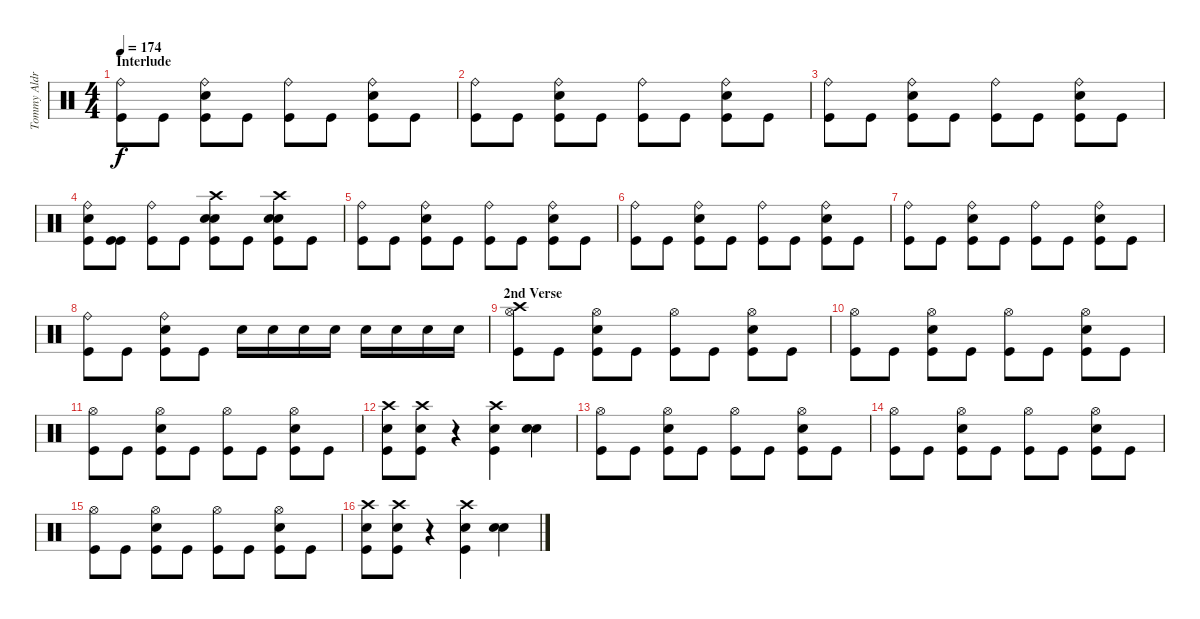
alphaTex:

\track ("Tommy Aldrige" "Tommy Aldr") {instrument percussion}
\staff {score}
\articulation defaults
\ts (4 4)
\section ("" "Interlude")
\tempo 174
\clef neutral
\ks c
("Ride (bell)" "Kick (hit)").8{dy f} "Kick (hit)".8 ("Ride (bell)" "Kick (hit)" "Snare (hit) 2").8 "Kick (hit)".8 ("Ride (bell)" "Kick (hit)").8 "Kick (hit)".8 ("Ride (bell)" "Kick (hit)" "Snare (hit) 2").8 "Kick (hit)".8 |
("Ride (bell)" "Kick (hit)").8 "Kick (hit)".8 ("Ride (bell)" "Kick (hit)" "Snare (hit) 2").8 "Kick (hit)".8 ("Ride (bell)" "Kick (hit)").8 "Kick (hit)".8 ("Ride (bell)" "Kick (hit)" "Snare (hit) 2").8 "Kick (hit)".8 |
("Ride (bell)" "Kick (hit)").8 "Kick (hit)".8 ("Ride (bell)" "Kick (hit)" "Snare (hit) 2").8 "Kick (hit)".8 ("Ride (bell)" "Kick (hit)").8 "Kick (hit)".8 ("Ride (bell)" "Kick (hit)" "Snare (hit) 2").8 "Kick (hit)".8 |
("Ride (bell)" "Kick (hit)" "Snare (hit) 2").8 ("Kick (hit)" "Kick (hit)").8 ("Ride (bell)" "Kick (hit)").8 "Kick (hit)".8 ("Crash high (hit)" "Snare (hit) 2" "Snare (hit) 2" "Kick (hit)").8 "Kick (hit)".8 ("Crash high (hit)" "Snare (hit) 2" "Snare (hit) 2" "Kick (hit)").8 "Kick (hit)".8 |
("Ride (bell)" "Kick (hit)").8 "Kick (hit)".8 ("Ride (bell)" "Kick (hit)" "Snare (hit) 2").8 "Kick (hit)".8 ("Ride (bell)" "Kick (hit)").8 "Kick (hit)".8 ("Ride (bell)" "Kick (hit)" "Snare (hit) 2").8 "Kick (hit)".8 |
("Ride (bell)" "Kick (hit)").8 "Kick (hit)".8 ("Ride (bell)" "Kick (hit)" "Snare (hit) 2").8 "Kick (hit)".8 ("Ride (bell)" "Kick (hit)").8 "Kick (hit)".8 ("Ride (bell)" "Kick (hit)" "Snare (hit) 2").8 "Kick (hit)".8 |
("Ride (bell)" "Kick (hit)").8 "Kick (hit)".8 ("Ride (bell)" "Kick (hit)" "Snare (hit) 2").8 "Kick (hit)".8 ("Ride (bell)" "Kick (hit)").8 "Kick (hit)".8 ("Ride (bell)" "Kick (hit)" "Snare (hit) 2").8 "Kick (hit)".8 |
("Ride (bell)" "Kick (hit)").8 "Kick (hit)".8 ("Ride (bell)" "Kick (hit)" "Snare (hit) 2").8 "Kick (hit)".8 "Snare (hit) 2".16 "Snare (hit) 2".16 "Snare (hit) 2".16 "Snare (hit) 2".16 "Snare (hit) 2".16 "Snare (hit) 2".16 "Snare (hit) 2".16 "Snare (hit) 2".16 |
\section ("" "2nd Verse")
("Hi-Hat (open)" "Kick (hit)" "Crash high (hit)").8 "Kick (hit)".8 ("Hi-Hat (open)" "Kick (hit)" "Snare (hit) 2").8 "Kick (hit)".8 ("Hi-Hat (open)" "Kick (hit)").8 "Kick (hit)".8 ("Hi-Hat (open)" "Kick (hit)" "Snare (hit) 2").8 "Kick (hit)".8 |
("Hi-Hat (open)" "Kick (hit)").8 "Kick (hit)".8 ("Hi-Hat (open)" "Kick (hit)" "Snare (hit) 2").8 "Kick (hit)".8 ("Hi-Hat (open)" "Kick (hit)").8 "Kick (hit)".8 ("Hi-Hat (open)" "Kick (hit)" "Snare (hit) 2").8 "Kick (hit)".8 |
("Hi-Hat (open)" "Kick (hit)").8 "Kick (hit)".8 ("Hi-Hat (open)" "Kick (hit)" "Snare (hit) 2").8 "Kick (hit)".8 ("Hi-Hat (open)" "Kick (hit)").8 "Kick (hit)".8 ("Hi-Hat (open)" "Kick (hit)" "Snare (hit) 2").8 "Kick (hit)".8 |
("Crash high (hit)" "Kick (hit)" "Snare (hit) 2").8 ("Crash high (hit)" "Kick (hit)" "Snare (hit) 2").8 r.4 ("Crash high (hit)" "Kick (hit)" "Snare (hit) 2").4 ("Snare (hit) 2" "Snare (hit) 2").4{bu 240} |
("Hi-Hat (open)" "Kick (hit)").8 "Kick (hit)".8 ("Hi-Hat (open)" "Kick (hit)" "Snare (hit) 2").8 "Kick (hit)".8 ("Hi-Hat (open)" "Kick (hit)").8 "Kick (hit)".8 ("Hi-Hat (open)" "Kick (hit)" "Snare (hit) 2").8 "Kick (hit)".8 |
("Hi-Hat (open)" "Kick (hit)").8 "Kick (hit)".8 ("Hi-Hat (open)" "Kick (hit)" "Snare (hit) 2").8 "Kick (hit)".8 ("Hi-Hat (open)" "Kick (hit)").8 "Kick (hit)".8 ("Hi-Hat (open)" "Kick (hit)" "Snare (hit) 2").8 "Kick (hit)".8 |
("Hi-Hat (open)" "Kick (hit)").8 "Kick (hit)".8 ("Hi-Hat (open)" "Kick (hit)" "Snare (hit) 2").8 "Kick (hit)".8 ("Hi-Hat (open)" "Kick (hit)").8 "Kick (hit)".8 ("Hi-Hat (open)" "Kick (hit)" "Snare (hit) 2").8 "Kick (hit)".8 |
("Crash high (hit)" "Kick (hit)" "Snare (hit) 2").8 ("Crash high (hit)" "Kick (hit)" "Snare (hit) 2").8 r.4 ("Crash high (hit)" "Kick (hit)" "Snare (hit) 2").4 ("Snare (hit) 2" "Snare (hit) 2").4{bu 240}
